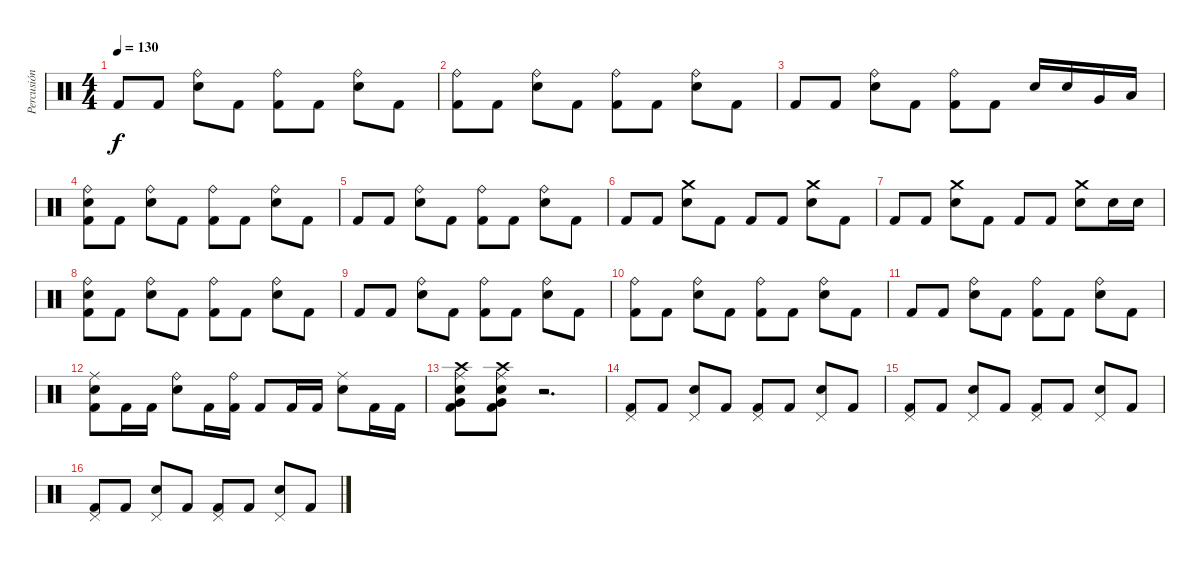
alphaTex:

\track ("Percusión" "Percusión") {instrument percussion}
\staff {score}
\articulation defaults
\ts (4 4)
\tempo 130
\clef neutral
\ks c "Kick (hit) 2".8{dy f} "Kick (hit) 2".8
("Electric Snare (hit)" "Ride (bell)").8 "Kick (hit) 2".8 ("Kick (hit) 2" "Ride (bell)").8 "Kick (hit) 2".8 ("Electric Snare (hit)" "Ride (bell)").8 "Kick (hit) 2".8 |
("Kick (hit) 2" "Ride (bell)").8 "Kick (hit) 2".8 ("Electric Snare (hit)" "Ride (bell)").8 "Kick (hit) 2".8 ("Kick (hit) 2" "Ride (bell)").8 "Kick (hit) 2".8 ("Electric Snare (hit)" "Ride (bell)").8 "Kick (hit) 2".8 |
"Kick (hit) 2".8 "Kick (hit) 2".8 ("Electric Snare (hit)" "Ride (bell)").8 "Kick (hit) 2".8 ("Kick (hit) 2" "Ride (bell)").8 "Kick (hit) 2".8 "Electric Snare (hit)".16 "Electric Snare (hit)".16 "Very Low Tom (hit)".16 "Low Floor Tom (hit)".16 |
("Kick (hit) 2" "Electric Snare (hit)" "Ride (bell)").8 "Kick (hit) 2".8 ("Electric Snare (hit)" "Ride (bell)").8 "Kick (hit) 2".8 ("Kick (hit) 2" "Ride (bell)").8 "Kick (hit) 2".8 ("Electric Snare (hit)" "Ride (bell)").8 "Kick (hit) 2".8 |
"Kick (hit) 2".8 "Kick (hit) 2".8 ("Electric Snare (hit)" "Ride (bell)").8 "Kick (hit) 2".8 ("Kick (hit) 2" "Ride (bell)").8 "Kick (hit) 2".8 ("Electric Snare (hit)" "Ride (bell)").8 "Kick (hit) 2".8 |
"Kick (hit) 2".8 "Kick (hit) 2".8 ("Electric Snare (hit)" "Crash medium (hit)").8 "Kick (hit) 2".8 "Kick (hit) 2".8 "Kick (hit) 2".8 ("Electric Snare (hit)" "Crash medium (hit)").8 "Kick (hit) 2".8 |
"Kick (hit) 2".8 "Kick (hit) 2".8 ("Electric Snare (hit)" "Crash medium (hit)").8 "Kick (hit) 2".8 "Kick (hit) 2".8 "Kick (hit) 2".8 ("Electric Snare (hit)" "Crash medium (hit)").8 "Electric Snare (hit)".16 "Electric Snare (hit)".16 |
("Kick (hit) 2" "Electric Snare (hit)" "Ride (bell)").8 "Kick (hit) 2".8 ("Electric Snare (hit)" "Ride (bell)").8 "Kick (hit) 2".8 ("Kick (hit) 2" "Ride (bell)").8 "Kick (hit) 2".8 ("Electric Snare (hit)" "Ride (bell)").8 "Kick (hit) 2".8 |
"Kick (hit) 2".8 "Kick (hit) 2".8 ("Electric Snare (hit)" "Ride (bell)").8 "Kick (hit) 2".8 ("Kick (hit) 2" "Ride (bell)").8 "Kick (hit) 2".8 ("Electric Snare (hit)" "Ride (bell)").8 "Kick (hit) 2".8 |
("Kick (hit) 2" "Ride (bell)").8 "Kick (hit) 2".8 ("Electric Snare (hit)" "Ride (bell)").8 "Kick (hit) 2".8 ("Kick (hit) 2" "Ride (bell)").8 "Kick (hit) 2".8 ("Electric Snare (hit)" "Ride (bell)").8 "Kick (hit) 2".8 |
"Kick (hit) 2".8 "Kick (hit) 2".8 ("Electric Snare (hit)" "Ride (bell)").8 "Kick (hit) 2".8 ("Kick (hit) 2" "Ride (bell)").8 "Kick (hit) 2".8 ("Electric Snare (hit)" "Ride (bell)").8 "Kick (hit) 2".8 |
("Kick (hit) 2" "Ride (middle)" "Electric Snare (hit)").8 "Kick (hit) 2".16 "Kick (hit) 2".16 ("Electric Snare (hit)" "Ride (bell)").8 "Kick (hit) 2".16 ("Kick (hit) 2" "Ride (bell)").16 "Kick (hit) 2".8 "Kick (hit) 2".16 "Kick (hit) 2".16 ("Electric Snare (hit)" "Ride (middle)").8 "Kick (hit) 2".16 "Kick (hit) 2".16 |
("Very Low Tom (hit)" "Crash high (hit)" "Ride (middle)" "Electric Snare (hit)" "Kick (hit) 2").8 ("Very Low Tom (hit)" "Crash high (hit)" "Ride (middle)" "Electric Snare (hit)" "Kick (hit) 2").8 r.2{d} |
("Kick (hit) 2" "Pedal Hi-Hat (hit)").8 "Kick (hit) 2".8 ("Electric Snare (hit)" "Pedal Hi-Hat (hit)").8 "Kick (hit) 2".8 ("Kick (hit) 2" "Pedal Hi-Hat (hit)").8 "Kick (hit) 2".8 ("Electric Snare (hit)" "Pedal Hi-Hat (hit)").8 "Kick (hit) 2".8 |
("Kick (hit) 2" "Pedal Hi-Hat (hit)").8 "Kick (hit) 2".8 ("Electric Snare (hit)" "Pedal Hi-Hat (hit)").8 "Kick (hit) 2".8 ("Kick (hit) 2" "Pedal Hi-Hat (hit)").8 "Kick (hit) 2".8 ("Electric Snare (hit)" "Pedal Hi-Hat (hit)").8 "Kick (hit) 2".8 |
("Kick (hit) 2" "Pedal Hi-Hat (hit)").8 "Kick (hit) 2".8 ("Electric Snare (hit)" "Pedal Hi-Hat (hit)").8 "Kick (hit) 2".8 ("Kick (hit) 2" "Pedal Hi-Hat (hit)").8 "Kick (hit) 2".8 ("Electric Snare (hit)" "Pedal Hi-Hat (hit)").8 "Kick (hit) 2".8
